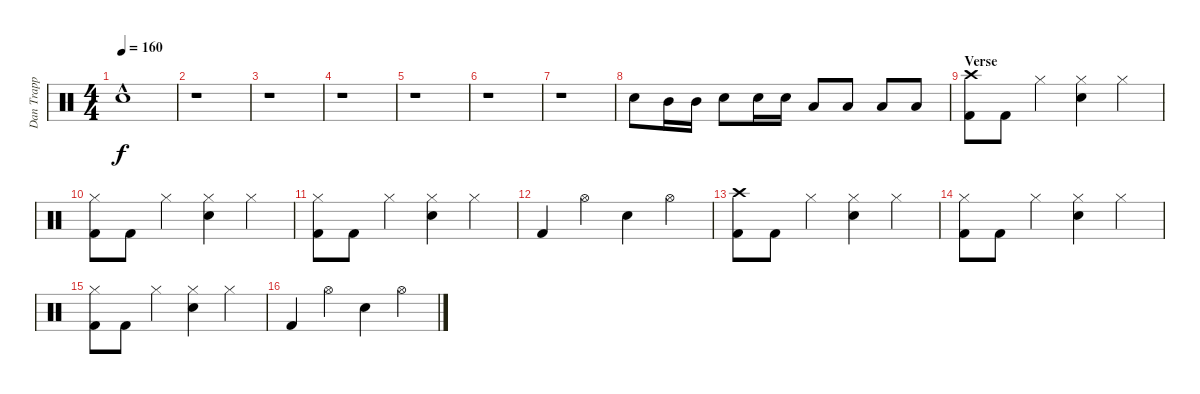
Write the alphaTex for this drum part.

\track ("Dan Trapp" "Dan Trapp") {instrument percussion}
\staff {score}
\articulation defaults
\ts (4 4)
\tempo 160
\clef neutral
\ks c "Snare (hit)"{hac t}.1{dy f}
|
r.1 |
r.1 |
r.1 |
r.1 |
r.1 |
r.1 |
"Snare (hit) 2".8 "Mid Tom (hit)".16 "Mid Tom (hit)".16 "Snare (hit) 2".8 "Snare (hit) 2".16 "Snare (hit) 2".16 "Low Tom (hit)".8 "Low Tom (hit)".8 "Low Floor Tom (hit)".8 "Low Floor Tom (hit)".8 |
\section ("" "Verse")
("Crash high (hit)" "Kick (hit) 2").8 "Kick (hit) 2".8 "Hi-Hat (closed)".4 ("Hi-Hat (closed)" "Snare (hit) 2").4 "Hi-Hat (closed)".4 |
("Hi-Hat (closed)" "Kick (hit) 2").8 "Kick (hit) 2".8 "Hi-Hat (closed)".4 ("Hi-Hat (closed)" "Snare (hit) 2").4 "Hi-Hat (closed)".4 |
("Hi-Hat (closed)" "Kick (hit) 2").8 "Kick (hit) 2".8 "Hi-Hat (closed)".4 ("Hi-Hat (closed)" "Snare (hit) 2").4 "Hi-Hat (closed)".4 |
"Kick (hit) 2".4 "Hi-Hat (open)".4 "Snare (hit) 2".4 "Hi-Hat (open)".4 |
("Crash high (hit)" "Kick (hit) 2").8 "Kick (hit) 2".8 "Hi-Hat (closed)".4 ("Hi-Hat (closed)" "Snare (hit) 2").4 "Hi-Hat (closed)".4 |
("Hi-Hat (closed)" "Kick (hit) 2").8 "Kick (hit) 2".8 "Hi-Hat (closed)".4 ("Hi-Hat (closed)" "Snare (hit) 2").4 "Hi-Hat (closed)".4 |
("Hi-Hat (closed)" "Kick (hit) 2").8 "Kick (hit) 2".8 "Hi-Hat (closed)".4 ("Hi-Hat (closed)" "Snare (hit) 2").4 "Hi-Hat (closed)".4 |
"Kick (hit) 2".4 "Hi-Hat (open)".4 "Snare (hit) 2".4 "Hi-Hat (open)".4
